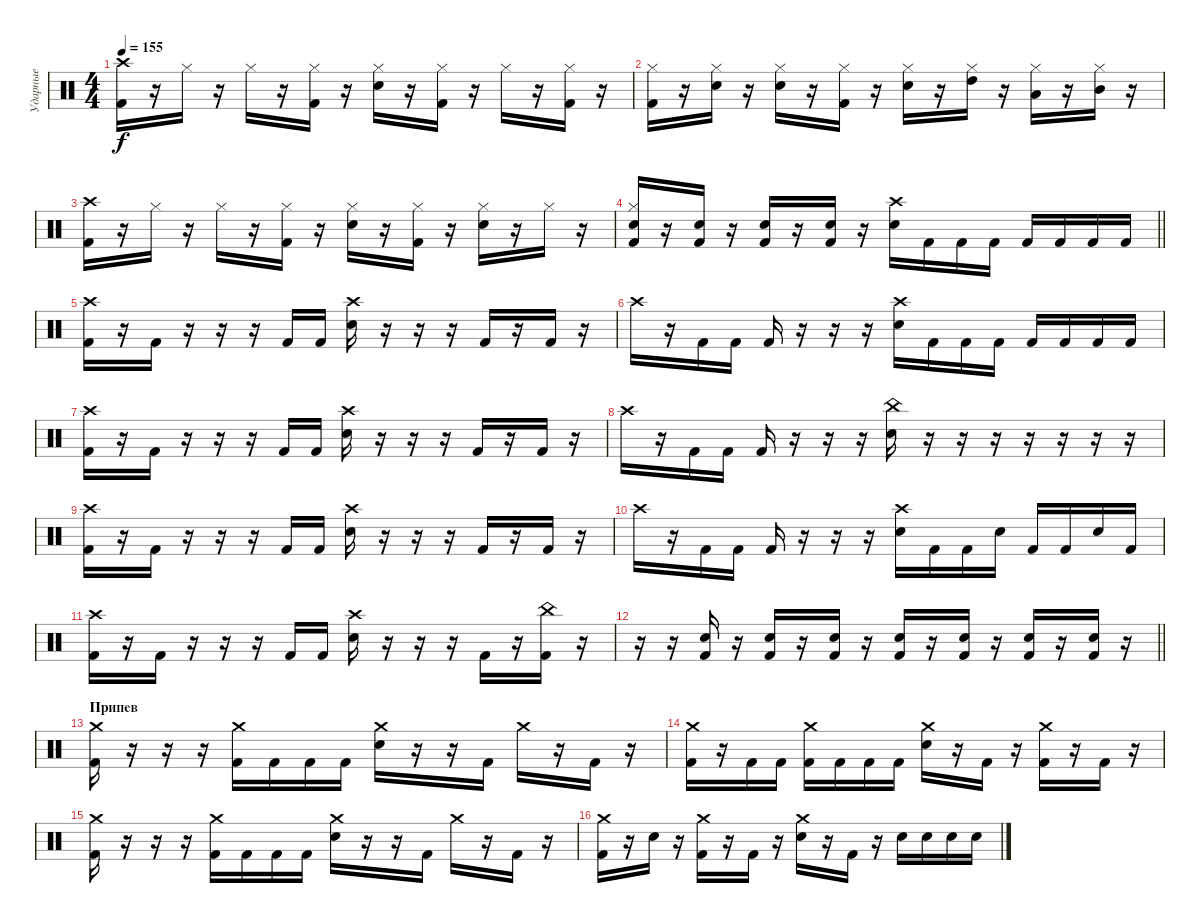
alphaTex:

\track ("Ударные" "Ударные") {instrument percussion}
\staff {score}
\articulation defaults
\ts (4 4)
\tempo 155
\clef neutral
\ks c
("Crash high (hit)" "Kick (hit) 2").16{dy f} r.16 "Hi-Hat (closed)".16 r.16 "Hi-Hat (closed)".16 r.16 ("Hi-Hat (closed)" "Kick (hit) 2").16 r.16 ("Hi-Hat (closed)" "Snare (hit) 2").16 r.16 ("Hi-Hat (closed)" "Kick (hit) 2").16 r.16 "Hi-Hat (closed)".16 r.16 ("Hi-Hat (closed)" "Kick (hit) 2").16 r.16 |
("Hi-Hat (closed)" "Kick (hit) 2").16 r.16 ("Hi-Hat (closed)" "Snare (hit) 2").16 r.16 ("Hi-Hat (closed)" "Snare (hit) 2").16 r.16 ("Hi-Hat (closed)" "Kick (hit) 2").16 r.16 ("Hi-Hat (closed)" "Snare (hit) 2").16 r.16 ("Hi-Hat (closed)" "High Tom (hit)").16 r.16 ("Hi-Hat (closed)" "Low Tom (hit)").16 r.16 ("Hi-Hat (closed)" "Mid Tom (hit)").16 r.16 |
("Crash high (hit)" "Kick (hit) 2").16 r.16 "Hi-Hat (closed)".16 r.16 "Hi-Hat (closed)".16 r.16 ("Hi-Hat (closed)" "Kick (hit) 2").16 r.16 ("Hi-Hat (closed)" "Snare (hit) 2").16 r.16 ("Hi-Hat (closed)" "Kick (hit) 2").16 r.16 ("Hi-Hat (closed)" "Snare (hit) 2").16 r.16 "Hi-Hat (closed)".16 r.16 |
\barLineRight lightlight
("Hi-Hat (closed)" "Snare (hit) 2" "Kick (hit) 2").16 r.16 ("Snare (hit) 2" "Kick (hit) 2").16 r.16 ("Snare (hit) 2" "Kick (hit) 2").16 r.16 ("Snare (hit) 2" "Kick (hit) 2").16 r.16 ("Crash high (hit)" "Snare (hit) 2").16 "Kick (hit) 2".16 "Kick (hit) 2".16 "Kick (hit) 2".16 "Kick (hit) 2".16 "Kick (hit) 2".16 "Kick (hit) 2".16 "Kick (hit) 2".16 |
("Crash high (hit)" "Kick (hit) 2").16 r.16 "Kick (hit) 2".16 r.16 r.16 r.16 "Kick (hit) 2".16 "Kick (hit) 2".16 ("Crash high (hit)" "Snare (hit) 2").16 r.16 r.16 r.16 "Kick (hit) 2".16 r.16 "Kick (hit) 2".16 r.16 |
"Crash high (hit)".16 r.16 "Kick (hit) 2".16 "Kick (hit) 2".16 "Kick (hit) 2".16 r.16 r.16 r.16 ("Crash high (hit)" "Snare (hit) 2").16 "Kick (hit) 2".16 "Kick (hit) 2".16 "Kick (hit) 2".16 "Kick (hit) 2".16 "Kick (hit) 2".16 "Kick (hit) 2".16 "Kick (hit) 2".16 |
("Crash high (hit)" "Kick (hit) 2").16 r.16 "Kick (hit) 2".16 r.16 r.16 r.16 "Kick (hit) 2".16 "Kick (hit) 2".16 ("Crash high (hit)" "Snare (hit) 2").16 r.16 r.16 r.16 "Kick (hit) 2".16 r.16 "Kick (hit) 2".16 r.16 |
"Crash high (hit)".16 r.16 "Kick (hit) 2".16 "Kick (hit) 2".16 "Kick (hit) 2".16 r.16 r.16 r.16 ("China (hit)" "Snare (hit) 2").16 r.16 r.16 r.16 r.16 r.16 r.16 r.16 |
("Crash high (hit)" "Kick (hit) 2").16 r.16 "Kick (hit) 2".16 r.16 r.16 r.16 "Kick (hit) 2".16 "Kick (hit) 2".16 ("Crash high (hit)" "Snare (hit) 2").16 r.16 r.16 r.16 "Kick (hit) 2".16 r.16 "Kick (hit) 2".16 r.16 |
"Crash high (hit)".16 r.16 "Kick (hit) 2".16 "Kick (hit) 2".16 "Kick (hit) 2".16 r.16 r.16 r.16 ("Crash high (hit)" "Snare (hit) 2").16 "Kick (hit) 2".16 "Kick (hit) 2".16 "Snare (hit) 2".16 "Kick (hit) 2".16 "Kick (hit) 2".16 "Snare (hit) 2".16 "Kick (hit) 2".16 |
("Crash high (hit)" "Kick (hit) 2").16 r.16 "Kick (hit) 2".16 r.16 r.16 r.16 "Kick (hit) 2".16 "Kick (hit) 2".16 ("Crash high (hit)" "Snare (hit) 2").16 r.16 r.16 r.16 "Kick (hit) 2".16 r.16 ("China (hit)" "Kick (hit) 2").16 r.16 |
\barLineRight lightlight
r.16 r.16 ("Snare (hit) 2" "Kick (hit) 2").16 r.16 ("Snare (hit) 2" "Kick (hit) 2").16 r.16 ("Snare (hit) 2" "Kick (hit) 2").16 r.16 ("Snare (hit) 2" "Kick (hit) 2").16 r.16 ("Snare (hit) 2" "Kick (hit) 2").16 r.16 ("Snare (hit) 2" "Kick (hit) 2").16 r.16 ("Snare (hit) 2" "Kick (hit) 2").16 r.16 |
\section ("" "Припев")
("Crash medium (hit)" "Kick (hit) 2").16 r.16 r.16 r.16 ("Crash medium (hit)" "Kick (hit) 2").16 "Kick (hit) 2".16 "Kick (hit) 2".16 "Kick (hit) 2".16 ("Crash medium (hit)" "Snare (hit) 2").16 r.16 r.16 "Kick (hit) 2".16 "Crash medium (hit)".16 r.16 "Kick (hit) 2".16 r.16 |
("Crash medium (hit)" "Kick (hit) 2").16 r.16 "Kick (hit) 2".16 "Kick (hit) 2".16 ("Crash medium (hit)" "Kick (hit) 2").16 "Kick (hit) 2".16 "Kick (hit) 2".16 "Kick (hit) 2".16 ("Crash medium (hit)" "Snare (hit) 2").16 r.16 "Kick (hit) 2".16 r.16 ("Crash medium (hit)" "Kick (hit) 2").16 r.16 "Kick (hit) 2".16 r.16 |
("Crash medium (hit)" "Kick (hit) 2").16 r.16 r.16 r.16 ("Crash medium (hit)" "Kick (hit) 2").16 "Kick (hit) 2".16 "Kick (hit) 2".16 "Kick (hit) 2".16 ("Crash medium (hit)" "Snare (hit) 2").16 r.16 r.16 "Kick (hit) 2".16 "Crash medium (hit)".16 r.16 "Kick (hit) 2".16 r.16 |
("Crash medium (hit)" "Kick (hit) 2").16 r.16 "Snare (hit) 2".16 r.16 ("Crash medium (hit)" "Kick (hit) 2").16 r.16 "Kick (hit) 2".16 r.16 ("Crash medium (hit)" "Snare (hit) 2").16 r.16 "Kick (hit) 2".16 r.16 "Snare (hit) 2".16 "Snare (hit) 2".16 "Snare (hit) 2".16 "Snare (hit) 2".16
